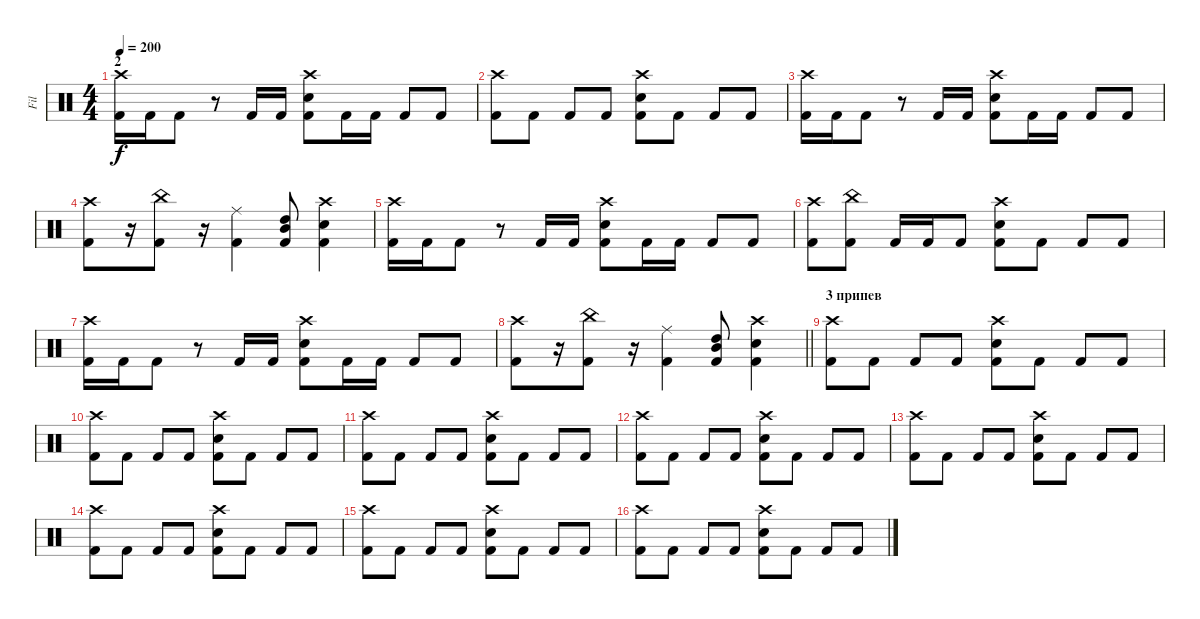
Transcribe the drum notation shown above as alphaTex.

\track ("Fil" "Fil") {instrument percussion}
\staff {score}
\articulation defaults
\ts (4 4)
\section ("" "2")
\tempo 200
\clef neutral
\ks c
("Crash high (hit)" "Kick (hit) 2").16{dy f} "Kick (hit) 2".16 "Kick (hit) 2".8 r.8 "Kick (hit) 2".16 "Kick (hit) 2".16 ("Crash high (hit)" "Electric Snare (hit)" "Kick (hit) 2").8 "Kick (hit) 2".16 "Kick (hit) 2".16 "Kick (hit) 2".8 "Kick (hit) 2".8 |
("Crash high (hit)" "Kick (hit) 2").8 "Kick (hit) 2".8 "Kick (hit) 2".8 "Kick (hit) 2".8 ("Crash high (hit)" "Electric Snare (hit)" "Kick (hit) 2").8 "Kick (hit) 2".8 "Kick (hit) 2".8 "Kick (hit) 2".8 |
("Crash high (hit)" "Kick (hit) 2").16 "Kick (hit) 2".16 "Kick (hit) 2".8 r.8 "Kick (hit) 2".16 "Kick (hit) 2".16 ("Crash high (hit)" "Electric Snare (hit)" "Kick (hit) 2").8 "Kick (hit) 2".16 "Kick (hit) 2".16 "Kick (hit) 2".8 "Kick (hit) 2".8 |
("Crash high (hit)" "Kick (hit) 2").8 r.16 ("China (hit)" "Kick (hit) 2").8 r.16 ("Ride (middle)" "Kick (hit) 2").4 ("High Tom (hit)" "Mid Tom (hit)" "Kick (hit) 2").8 ("Crash high (hit)" "Electric Snare (hit)" "Kick (hit) 2").4 |
("Crash high (hit)" "Kick (hit) 2").16 "Kick (hit) 2".16 "Kick (hit) 2".8 r.8 "Kick (hit) 2".16 "Kick (hit) 2".16 ("Crash high (hit)" "Electric Snare (hit)" "Kick (hit) 2").8 "Kick (hit) 2".16 "Kick (hit) 2".16 "Kick (hit) 2".8 "Kick (hit) 2".8 |
("Crash high (hit)" "Kick (hit) 2").8 ("China (hit)" "Kick (hit) 2").8 "Kick (hit) 2".16 "Kick (hit) 2".16 "Kick (hit) 2".8 ("Crash high (hit)" "Electric Snare (hit)" "Kick (hit) 2").8 "Kick (hit) 2".8 "Kick (hit) 2".8 "Kick (hit) 2".8 |
("Crash high (hit)" "Kick (hit) 2").16 "Kick (hit) 2".16 "Kick (hit) 2".8 r.8 "Kick (hit) 2".16 "Kick (hit) 2".16 ("Crash high (hit)" "Electric Snare (hit)" "Kick (hit) 2").8 "Kick (hit) 2".16 "Kick (hit) 2".16 "Kick (hit) 2".8 "Kick (hit) 2".8 |
\barLineRight lightlight
("Crash high (hit)" "Kick (hit) 2").8 r.16 ("China (hit)" "Kick (hit) 2").8 r.16 ("Ride (middle)" "Kick (hit) 2").4 ("High Tom (hit)" "Mid Tom (hit)" "Kick (hit) 2").8 ("Crash high (hit)" "Electric Snare (hit)" "Kick (hit) 2").4 |
\section ("" "3 припев")
("Crash high (hit)" "Kick (hit) 2").8 "Kick (hit) 2".8 "Kick (hit) 2".8 "Kick (hit) 2".8 ("Crash high (hit)" "Electric Snare (hit)" "Kick (hit) 2").8 "Kick (hit) 2".8 "Kick (hit) 2".8 "Kick (hit) 2".8 |
("Crash high (hit)" "Kick (hit) 2").8 "Kick (hit) 2".8 "Kick (hit) 2".8 "Kick (hit) 2".8 ("Crash high (hit)" "Electric Snare (hit)" "Kick (hit) 2").8 "Kick (hit) 2".8 "Kick (hit) 2".8 "Kick (hit) 2".8 |
("Crash high (hit)" "Kick (hit) 2").8 "Kick (hit) 2".8 "Kick (hit) 2".8 "Kick (hit) 2".8 ("Crash high (hit)" "Electric Snare (hit)" "Kick (hit) 2").8 "Kick (hit) 2".8 "Kick (hit) 2".8 "Kick (hit) 2".8 |
("Crash high (hit)" "Kick (hit) 2").8 "Kick (hit) 2".8 "Kick (hit) 2".8 "Kick (hit) 2".8 ("Crash high (hit)" "Electric Snare (hit)" "Kick (hit) 2").8 "Kick (hit) 2".8 "Kick (hit) 2".8 "Kick (hit) 2".8 |
("Crash high (hit)" "Kick (hit) 2").8 "Kick (hit) 2".8 "Kick (hit) 2".8 "Kick (hit) 2".8 ("Crash high (hit)" "Electric Snare (hit)" "Kick (hit) 2").8 "Kick (hit) 2".8 "Kick (hit) 2".8 "Kick (hit) 2".8 |
("Crash high (hit)" "Kick (hit) 2").8 "Kick (hit) 2".8 "Kick (hit) 2".8 "Kick (hit) 2".8 ("Crash high (hit)" "Electric Snare (hit)" "Kick (hit) 2").8 "Kick (hit) 2".8 "Kick (hit) 2".8 "Kick (hit) 2".8 |
("Crash high (hit)" "Kick (hit) 2").8 "Kick (hit) 2".8 "Kick (hit) 2".8 "Kick (hit) 2".8 ("Crash high (hit)" "Electric Snare (hit)" "Kick (hit) 2").8 "Kick (hit) 2".8 "Kick (hit) 2".8 "Kick (hit) 2".8 |
("Crash high (hit)" "Kick (hit) 2").8 "Kick (hit) 2".8 "Kick (hit) 2".8 "Kick (hit) 2".8 ("Crash high (hit)" "Electric Snare (hit)" "Kick (hit) 2").8 "Kick (hit) 2".8 "Kick (hit) 2".8 "Kick (hit) 2".8
